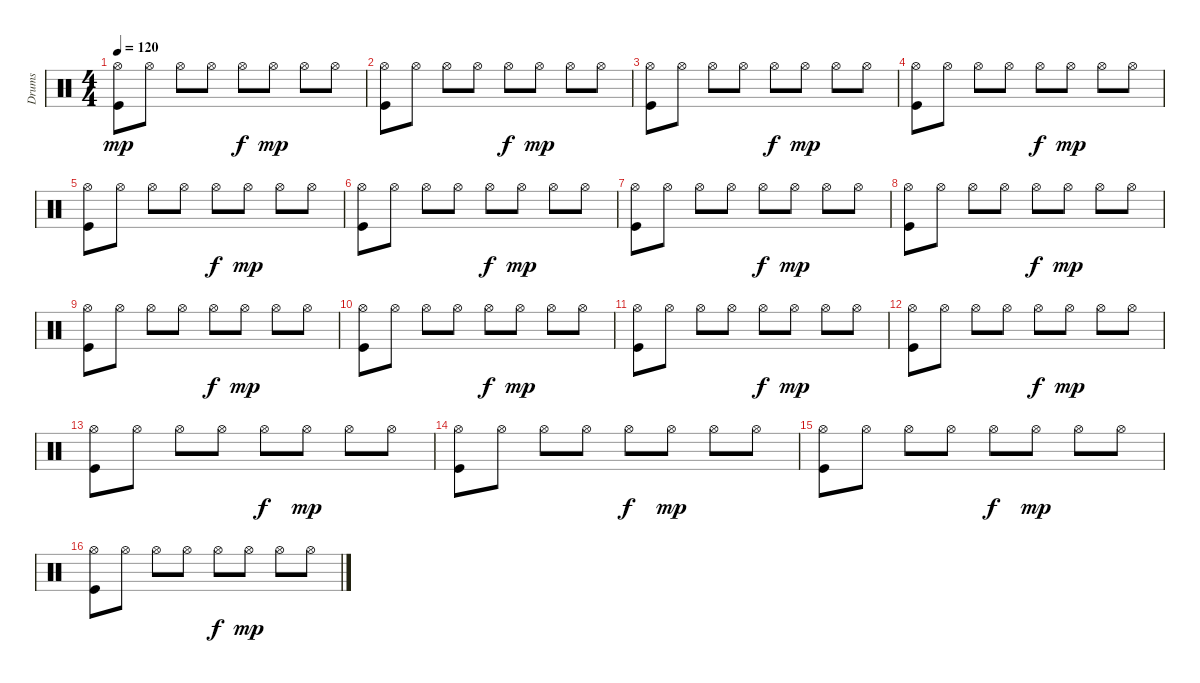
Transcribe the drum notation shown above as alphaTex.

\track ("Drums" "Drums") {instrument percussion}
\staff {score}
\articulation defaults
\ts (4 4)
\tempo 120
\clef neutral
\ks c
("Hi-Hat (open)" "Kick (hit)").8{dy mp} "Hi-Hat (open)".8 "Hi-Hat (open)".8 "Hi-Hat (open)".8 "Hi-Hat (open)".8{dy f} "Hi-Hat (open)".8{dy mp} "Hi-Hat (open)".8 "Hi-Hat (open)".8 |
("Hi-Hat (open)" "Kick (hit)").8 "Hi-Hat (open)".8 "Hi-Hat (open)".8 "Hi-Hat (open)".8 "Hi-Hat (open)".8{dy f} "Hi-Hat (open)".8{dy mp} "Hi-Hat (open)".8 "Hi-Hat (open)".8 |
("Hi-Hat (open)" "Kick (hit)").8 "Hi-Hat (open)".8 "Hi-Hat (open)".8 "Hi-Hat (open)".8 "Hi-Hat (open)".8{dy f} "Hi-Hat (open)".8{dy mp} "Hi-Hat (open)".8 "Hi-Hat (open)".8 |
("Hi-Hat (open)" "Kick (hit)").8 "Hi-Hat (open)".8 "Hi-Hat (open)".8 "Hi-Hat (open)".8 "Hi-Hat (open)".8{dy f} "Hi-Hat (open)".8{dy mp} "Hi-Hat (open)".8 "Hi-Hat (open)".8 |
("Hi-Hat (open)" "Kick (hit)").8 "Hi-Hat (open)".8 "Hi-Hat (open)".8 "Hi-Hat (open)".8 "Hi-Hat (open)".8{dy f} "Hi-Hat (open)".8{dy mp} "Hi-Hat (open)".8 "Hi-Hat (open)".8 |
("Hi-Hat (open)" "Kick (hit)").8 "Hi-Hat (open)".8 "Hi-Hat (open)".8 "Hi-Hat (open)".8 "Hi-Hat (open)".8{dy f} "Hi-Hat (open)".8{dy mp} "Hi-Hat (open)".8 "Hi-Hat (open)".8 |
("Hi-Hat (open)" "Kick (hit)").8 "Hi-Hat (open)".8 "Hi-Hat (open)".8 "Hi-Hat (open)".8 "Hi-Hat (open)".8{dy f} "Hi-Hat (open)".8{dy mp} "Hi-Hat (open)".8 "Hi-Hat (open)".8 |
("Hi-Hat (open)" "Kick (hit)").8 "Hi-Hat (open)".8 "Hi-Hat (open)".8 "Hi-Hat (open)".8 "Hi-Hat (open)".8{dy f} "Hi-Hat (open)".8{dy mp} "Hi-Hat (open)".8 "Hi-Hat (open)".8 |
("Hi-Hat (open)" "Kick (hit)").8 "Hi-Hat (open)".8 "Hi-Hat (open)".8 "Hi-Hat (open)".8 "Hi-Hat (open)".8{dy f} "Hi-Hat (open)".8{dy mp} "Hi-Hat (open)".8 "Hi-Hat (open)".8 |
("Hi-Hat (open)" "Kick (hit)").8 "Hi-Hat (open)".8 "Hi-Hat (open)".8 "Hi-Hat (open)".8 "Hi-Hat (open)".8{dy f} "Hi-Hat (open)".8{dy mp} "Hi-Hat (open)".8 "Hi-Hat (open)".8 |
("Hi-Hat (open)" "Kick (hit)").8 "Hi-Hat (open)".8 "Hi-Hat (open)".8 "Hi-Hat (open)".8 "Hi-Hat (open)".8{dy f} "Hi-Hat (open)".8{dy mp} "Hi-Hat (open)".8 "Hi-Hat (open)".8 |
("Hi-Hat (open)" "Kick (hit)").8 "Hi-Hat (open)".8 "Hi-Hat (open)".8 "Hi-Hat (open)".8 "Hi-Hat (open)".8{dy f} "Hi-Hat (open)".8{dy mp} "Hi-Hat (open)".8 "Hi-Hat (open)".8 |
("Hi-Hat (open)" "Kick (hit)").8 "Hi-Hat (open)".8 "Hi-Hat (open)".8 "Hi-Hat (open)".8 "Hi-Hat (open)".8{dy f} "Hi-Hat (open)".8{dy mp} "Hi-Hat (open)".8 "Hi-Hat (open)".8 |
("Hi-Hat (open)" "Kick (hit)").8 "Hi-Hat (open)".8 "Hi-Hat (open)".8 "Hi-Hat (open)".8 "Hi-Hat (open)".8{dy f} "Hi-Hat (open)".8{dy mp} "Hi-Hat (open)".8 "Hi-Hat (open)".8 |
("Hi-Hat (open)" "Kick (hit)").8 "Hi-Hat (open)".8 "Hi-Hat (open)".8 "Hi-Hat (open)".8 "Hi-Hat (open)".8{dy f} "Hi-Hat (open)".8{dy mp} "Hi-Hat (open)".8 "Hi-Hat (open)".8 |
("Hi-Hat (open)" "Kick (hit)").8 "Hi-Hat (open)".8 "Hi-Hat (open)".8 "Hi-Hat (open)".8 "Hi-Hat (open)".8{dy f} "Hi-Hat (open)".8{dy mp} "Hi-Hat (open)".8 "Hi-Hat (open)".8
